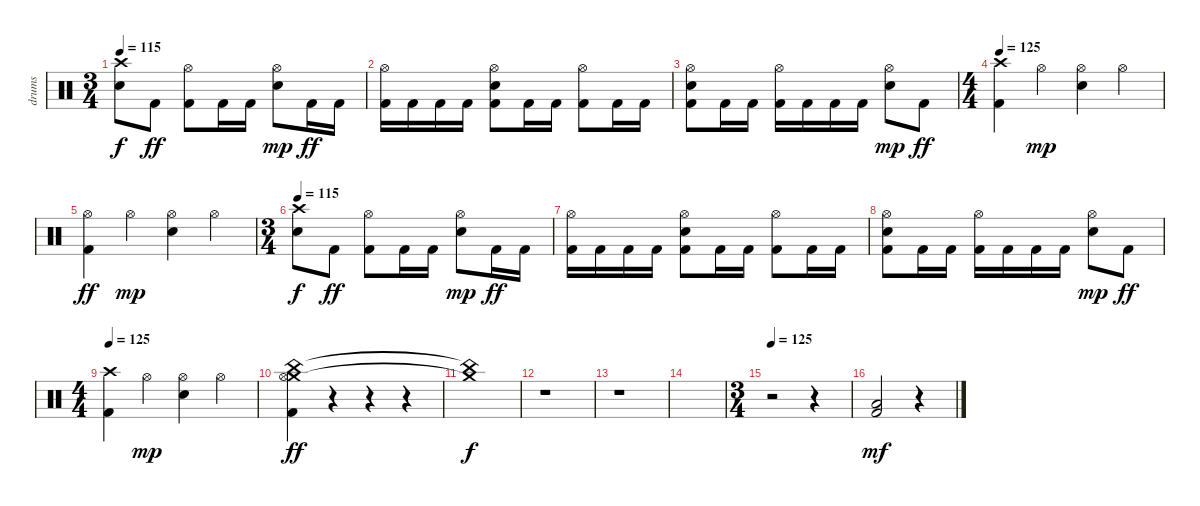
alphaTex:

\track ("drums" "drums") {instrument percussion}
\staff {score}
\articulation defaults
\ts (3 4)
\tempo 115
\clef neutral
\ks c
("Crash high (hit)" "Snare (hit) 2").8{dy f} "Kick (hit) 2".8{dy ff} ("Hi-Hat (open)" "Kick (hit) 2").8 "Kick (hit) 2".16 "Kick (hit) 2".16 ("Hi-Hat (open)" "Snare (hit) 2").8{dy mp} "Kick (hit) 2".16{dy ff} "Kick (hit) 2".16 |
("Hi-Hat (open)" "Kick (hit) 2").16 "Kick (hit) 2".16 "Kick (hit) 2".16 "Kick (hit) 2".16 ("Hi-Hat (open)" "Snare (hit) 2" "Kick (hit) 2").8 "Kick (hit) 2".16 "Kick (hit) 2".16 ("Hi-Hat (open)" "Kick (hit) 2").8 "Kick (hit) 2".16 "Kick (hit) 2".16 |
("Hi-Hat (open)" "Snare (hit) 2" "Kick (hit) 2").8 "Kick (hit) 2".16 "Kick (hit) 2".16 ("Hi-Hat (open)" "Kick (hit) 2").16 "Kick (hit) 2".16 "Kick (hit) 2".16 "Kick (hit) 2".16 ("Hi-Hat (open)" "Snare (hit) 2").8{dy mp} "Kick (hit) 2".8{dy ff} |
\ts (4 4)
\tempo 125
("Crash high (hit)" "Kick (hit) 2").4 "Hi-Hat (open)".4{dy mp} ("Hi-Hat (open)" "Snare (hit) 2").4 "Hi-Hat (open)".4 |
("Hi-Hat (open)" "Kick (hit) 2").4{dy ff} "Hi-Hat (open)".4{dy mp} ("Hi-Hat (open)" "Snare (hit) 2").4 "Hi-Hat (open)".4 |
\ts (3 4)
\tempo 115
("Crash high (hit)" "Snare (hit) 2").8{dy f} "Kick (hit) 2".8{dy ff} ("Hi-Hat (open)" "Kick (hit) 2").8 "Kick (hit) 2".16 "Kick (hit) 2".16 ("Hi-Hat (open)" "Snare (hit) 2").8{dy mp} "Kick (hit) 2".16{dy ff} "Kick (hit) 2".16 |
("Hi-Hat (open)" "Kick (hit) 2").16 "Kick (hit) 2".16 "Kick (hit) 2".16 "Kick (hit) 2".16 ("Hi-Hat (open)" "Snare (hit) 2" "Kick (hit) 2").8 "Kick (hit) 2".16 "Kick (hit) 2".16 ("Hi-Hat (open)" "Kick (hit) 2").8 "Kick (hit) 2".16 "Kick (hit) 2".16 |
("Hi-Hat (open)" "Snare (hit) 2" "Kick (hit) 2").8 "Kick (hit) 2".16 "Kick (hit) 2".16 ("Hi-Hat (open)" "Kick (hit) 2").16 "Kick (hit) 2".16 "Kick (hit) 2".16 "Kick (hit) 2".16 ("Hi-Hat (open)" "Snare (hit) 2").8{dy mp} "Kick (hit) 2".8{dy ff} |
\ts (4 4)
\tempo 125
("Crash high (hit)" "Kick (hit) 2").4 "Hi-Hat (open)".4{dy mp} ("Hi-Hat (open)" "Snare (hit) 2").4 "Hi-Hat (open)".4 |
("Crash medium (hit)" "China (hit)" "Hi-Hat (open)" "Kick (hit) 2").4{dy ff} r.4 r.4 r.4 |
("Crash medium (hit)"{t} "China (hit)"{t}).1{dy f} |
r.1 |
r.1 |
|
\ts (3 4)
\tempo 125
r.2 r.4 |
("Low Tom (hit)" "Kick (hit) 2").2{dy mf} r.4
